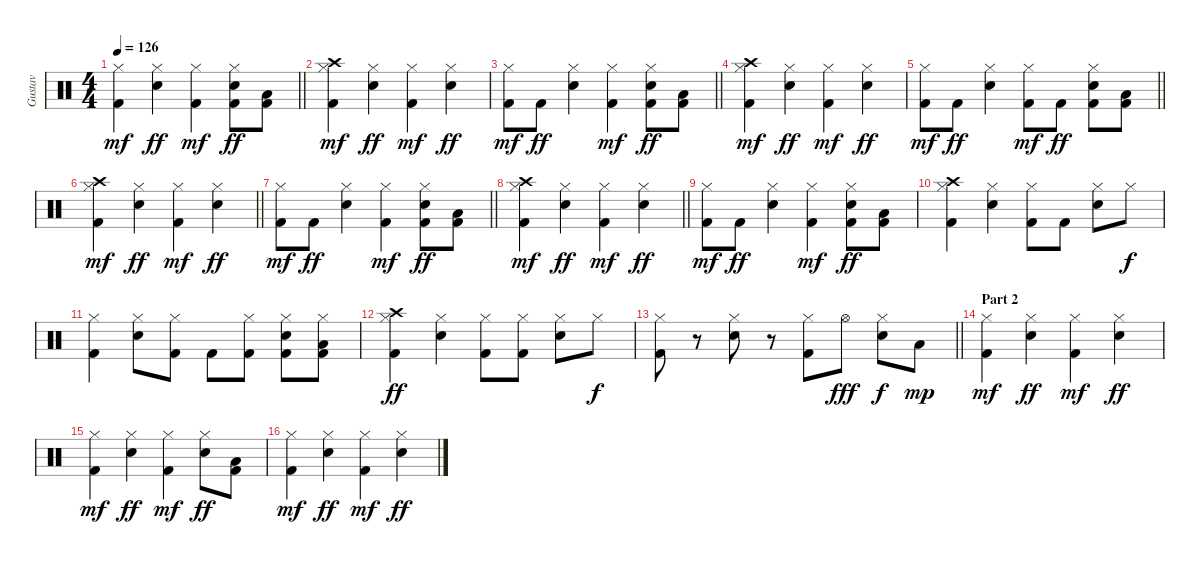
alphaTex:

\track ("Gustav" "Gustav") {instrument percussion}
\staff {score}
\articulation defaults
\ts (4 4)
\tempo 126
\clef neutral
\barLineRight lightlight
\ks c
("Hi-Hat (closed)" "Kick (hit) 2").4{dy mf} ("Hi-Hat (closed)" "Snare (hit) 2").4{dy ff} ("Hi-Hat (closed)" "Kick (hit) 2").4{dy mf} ("Hi-Hat (closed)" "Snare (hit) 2" "Kick (hit) 2").8{dy ff} ("Low Tom (hit)" "Kick (hit) 2").8 |
("Crash high (hit)" "Hi-Hat (closed)" "Kick (hit) 2").4{dy mf} ("Hi-Hat (closed)" "Snare (hit) 2").4{dy ff} ("Hi-Hat (closed)" "Kick (hit) 2").4{dy mf} ("Hi-Hat (closed)" "Snare (hit) 2").4{dy ff} |
\barLineRight lightlight
("Hi-Hat (closed)" "Kick (hit) 2").8{dy mf} "Kick (hit) 2".8{dy ff} ("Hi-Hat (closed)" "Snare (hit) 2").4 ("Hi-Hat (closed)" "Kick (hit) 2").4{dy mf} ("Hi-Hat (closed)" "Snare (hit) 2" "Kick (hit) 2").8{dy ff} ("Low Tom (hit)" "Kick (hit) 2").8 |
("Crash high (hit)" "Hi-Hat (closed)" "Kick (hit) 2").4{dy mf} ("Hi-Hat (closed)" "Snare (hit) 2").4{dy ff} ("Hi-Hat (closed)" "Kick (hit) 2").4{dy mf} ("Hi-Hat (closed)" "Snare (hit) 2").4{dy ff} |
\barLineRight lightlight
("Hi-Hat (closed)" "Kick (hit) 2").8{dy mf} "Kick (hit) 2".8{dy ff} ("Hi-Hat (closed)" "Snare (hit) 2").4 ("Hi-Hat (closed)" "Kick (hit) 2").8{dy mf} "Kick (hit) 2".8{dy ff} ("Hi-Hat (closed)" "Snare (hit) 2" "Kick (hit) 2").8 ("Low Tom (hit)" "Kick (hit) 2").8 |
\barLineRight lightlight
("Crash high (hit)" "Hi-Hat (closed)" "Kick (hit) 2").4{dy mf} ("Hi-Hat (closed)" "Snare (hit) 2").4{dy ff} ("Hi-Hat (closed)" "Kick (hit) 2").4{dy mf} ("Hi-Hat (closed)" "Snare (hit) 2").4{dy ff} |
\barLineRight lightlight
("Hi-Hat (closed)" "Kick (hit) 2").8{dy mf} "Kick (hit) 2".8{dy ff} ("Hi-Hat (closed)" "Snare (hit) 2").4 ("Hi-Hat (closed)" "Kick (hit) 2").4{dy mf} ("Hi-Hat (closed)" "Snare (hit) 2" "Kick (hit) 2").8{dy ff} ("Low Tom (hit)" "Kick (hit) 2").8 |
\barLineRight lightlight
("Crash high (hit)" "Hi-Hat (closed)" "Kick (hit) 2").4{dy mf} ("Hi-Hat (closed)" "Snare (hit) 2").4{dy ff} ("Hi-Hat (closed)" "Kick (hit) 2").4{dy mf} ("Hi-Hat (closed)" "Snare (hit) 2").4{dy ff} |
("Hi-Hat (closed)" "Kick (hit) 2").8{dy mf} "Kick (hit) 2".8{dy ff} ("Hi-Hat (closed)" "Snare (hit) 2").4 ("Hi-Hat (closed)" "Kick (hit) 2").4{dy mf} ("Hi-Hat (closed)" "Snare (hit) 2" "Kick (hit) 2").8{dy ff} ("Low Tom (hit)" "Kick (hit) 2").8 |
("Crash high (hit)" "Hi-Hat (closed)" "Kick (hit) 2").4 ("Hi-Hat (closed)" "Snare (hit) 2").4 ("Hi-Hat (closed)" "Kick (hit) 2").8 "Kick (hit) 2".8 ("Hi-Hat (closed)" "Snare (hit) 2").8 "Hi-Hat (closed)".8{dy f} |
("Hi-Hat (closed)" "Kick (hit) 2").4 ("Hi-Hat (closed)" "Snare (hit) 2").8 ("Hi-Hat (closed)" "Kick (hit) 2").8 "Kick (hit) 2".8 ("Hi-Hat (closed)" "Kick (hit) 2").8 ("Hi-Hat (closed)" "Snare (hit) 2" "Kick (hit) 2").8 ("Hi-Hat (closed)" "Low Tom (hit)" "Kick (hit) 2").8 |
("Crash high (hit)" "Hi-Hat (closed)" "Kick (hit) 2").4{dy ff} ("Hi-Hat (closed)" "Snare (hit) 2").4 ("Hi-Hat (closed)" "Kick (hit) 2").8 ("Hi-Hat (closed)" "Kick (hit) 2").8 ("Hi-Hat (closed)" "Snare (hit) 2").8 "Hi-Hat (closed)".8{dy f} |
\barLineRight lightlight
("Hi-Hat (closed)" "Kick (hit) 2").8 r.8 ("Hi-Hat (closed)" "Snare (hit) 2").8 r.8 ("Hi-Hat (closed)" "Kick (hit) 2").8 "Hi-Hat (open)".8{dy fff} ("Hi-Hat (closed)" "Snare (hit) 2").8{dy f} "Low Tom (hit)".8{dy mp} |
\section ("" "Part 2")
("Hi-Hat (closed)" "Kick (hit) 2").4{dy mf} ("Hi-Hat (closed)" "Snare (hit) 2").4{dy ff} ("Hi-Hat (closed)" "Kick (hit) 2").4{dy mf} ("Hi-Hat (closed)" "Snare (hit) 2").4{dy ff} |
("Hi-Hat (closed)" "Kick (hit) 2").4{dy mf} ("Hi-Hat (closed)" "Snare (hit) 2").4{dy ff} ("Hi-Hat (closed)" "Kick (hit) 2").4{dy mf} ("Hi-Hat (closed)" "Snare (hit) 2").8{dy ff} ("Low Tom (hit)" "Kick (hit) 2").8 |
("Hi-Hat (closed)" "Kick (hit) 2").4{dy mf} ("Hi-Hat (closed)" "Snare (hit) 2").4{dy ff} ("Hi-Hat (closed)" "Kick (hit) 2").4{dy mf} ("Hi-Hat (closed)" "Snare (hit) 2").4{dy ff}
